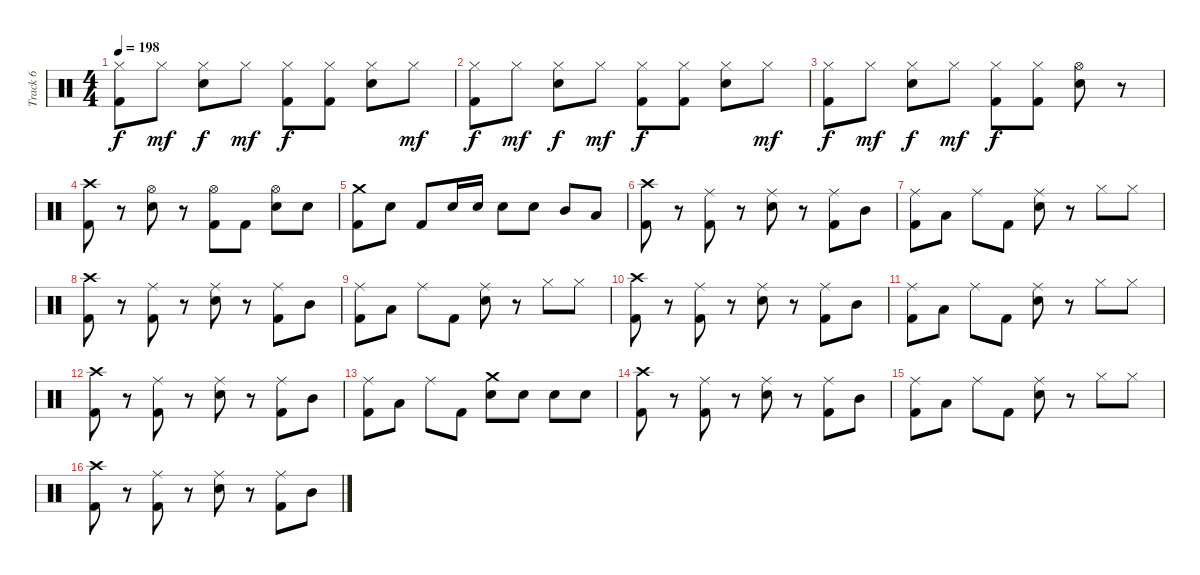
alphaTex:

\track ("Track 6" "Track 6") {instrument percussion}
\staff {score}
\articulation defaults
\ts (4 4)
\tempo 198
\clef neutral
\ks c
("Hi-Hat (closed)" "Kick (hit) 2").8{dy f} "Hi-Hat (closed)".8{dy mf} ("Hi-Hat (closed)" "Electric Snare (hit)").8{dy f} "Hi-Hat (closed)".8{dy mf} ("Hi-Hat (closed)" "Kick (hit) 2").8{dy f} ("Hi-Hat (closed)" "Kick (hit) 2").8 ("Hi-Hat (closed)" "Electric Snare (hit)").8 "Hi-Hat (closed)".8{dy mf} |
("Hi-Hat (closed)" "Kick (hit) 2").8{dy f} "Hi-Hat (closed)".8{dy mf} ("Hi-Hat (closed)" "Electric Snare (hit)").8{dy f} "Hi-Hat (closed)".8{dy mf} ("Hi-Hat (closed)" "Kick (hit) 2").8{dy f} ("Hi-Hat (closed)" "Kick (hit) 2").8 ("Hi-Hat (closed)" "Electric Snare (hit)").8 "Hi-Hat (closed)".8{dy mf} |
("Hi-Hat (closed)" "Kick (hit) 2").8{dy f} "Hi-Hat (closed)".8{dy mf} ("Hi-Hat (closed)" "Electric Snare (hit)").8{dy f} "Hi-Hat (closed)".8{dy mf} ("Hi-Hat (closed)" "Kick (hit) 2").8{dy f} ("Hi-Hat (closed)" "Kick (hit) 2").8 ("Hi-Hat (open)" "Electric Snare (hit)").8 r.8 |
("Crash high (hit)" "Kick (hit) 2").8 r.8 ("Hi-Hat (open)" "Electric Snare (hit)").8 r.8 ("Hi-Hat (open)" "Kick (hit) 2").8 "Kick (hit) 2".8 ("Hi-Hat (open)" "Electric Snare (hit)").8 "Electric Snare (hit)".8 |
("Crash medium (hit)" "Kick (hit) 2").8 "Electric Snare (hit)".8 "Kick (hit) 2".8 "Electric Snare (hit)".16 "Electric Snare (hit)".16 "Electric Snare (hit)".8 "Electric Snare (hit)".8 "Mid Tom (hit)".8 "Low Tom (hit)".8 |
("Crash high (hit)" "Kick (hit) 2").8 r.8 ("Ride (middle)" "Kick (hit) 2").8 r.8 ("Ride (middle)" "Electric Snare (hit)").8 r.8 ("Ride (middle)" "Kick (hit) 2").8 "Mid Tom (hit)".8 |
("Ride (middle)" "Kick (hit) 2").8 "Low Tom (hit)".8 "Ride (middle)".8 "Kick (hit) 2".8 ("Ride (middle)" "Electric Snare (hit)").8 r.8 "Hi-Hat (closed)".8 "Hi-Hat (closed)".8 |
("Crash high (hit)" "Kick (hit) 2").8 r.8 ("Ride (middle)" "Kick (hit) 2").8 r.8 ("Ride (middle)" "Electric Snare (hit)").8 r.8 ("Ride (middle)" "Kick (hit) 2").8 "Mid Tom (hit)".8 |
("Ride (middle)" "Kick (hit) 2").8 "Low Tom (hit)".8 "Ride (middle)".8 "Kick (hit) 2".8 ("Ride (middle)" "Electric Snare (hit)").8 r.8 "Hi-Hat (closed)".8 "Hi-Hat (closed)".8 |
("Crash high (hit)" "Kick (hit) 2").8 r.8 ("Ride (middle)" "Kick (hit) 2").8 r.8 ("Ride (middle)" "Electric Snare (hit)").8 r.8 ("Ride (middle)" "Kick (hit) 2").8 "Mid Tom (hit)".8 |
("Ride (middle)" "Kick (hit) 2").8 "Low Tom (hit)".8 "Ride (middle)".8 "Kick (hit) 2".8 ("Ride (middle)" "Electric Snare (hit)").8 r.8 "Hi-Hat (closed)".8 "Hi-Hat (closed)".8 |
("Crash high (hit)" "Kick (hit) 2").8 r.8 ("Ride (middle)" "Kick (hit) 2").8 r.8 ("Ride (middle)" "Electric Snare (hit)").8 r.8 ("Ride (middle)" "Kick (hit) 2").8 "Mid Tom (hit)".8 |
("Ride (middle)" "Kick (hit) 2").8 "Low Tom (hit)".8 "Ride (middle)".8 "Kick (hit) 2".8 ("Crash medium (hit)" "Electric Snare (hit)").8 "Electric Snare (hit)".8 "Electric Snare (hit)".8 "Electric Snare (hit)".8 |
("Crash high (hit)" "Kick (hit) 2").8 r.8 ("Ride (middle)" "Kick (hit) 2").8 r.8 ("Ride (middle)" "Electric Snare (hit)").8 r.8 ("Ride (middle)" "Kick (hit) 2").8 "Mid Tom (hit)".8 |
("Ride (middle)" "Kick (hit) 2").8 "Low Tom (hit)".8 "Ride (middle)".8 "Kick (hit) 2".8 ("Ride (middle)" "Electric Snare (hit)").8 r.8 "Hi-Hat (closed)".8 "Hi-Hat (closed)".8 |
("Crash high (hit)" "Kick (hit) 2").8 r.8 ("Ride (middle)" "Kick (hit) 2").8 r.8 ("Ride (middle)" "Electric Snare (hit)").8 r.8 ("Ride (middle)" "Kick (hit) 2").8 "Mid Tom (hit)".8
